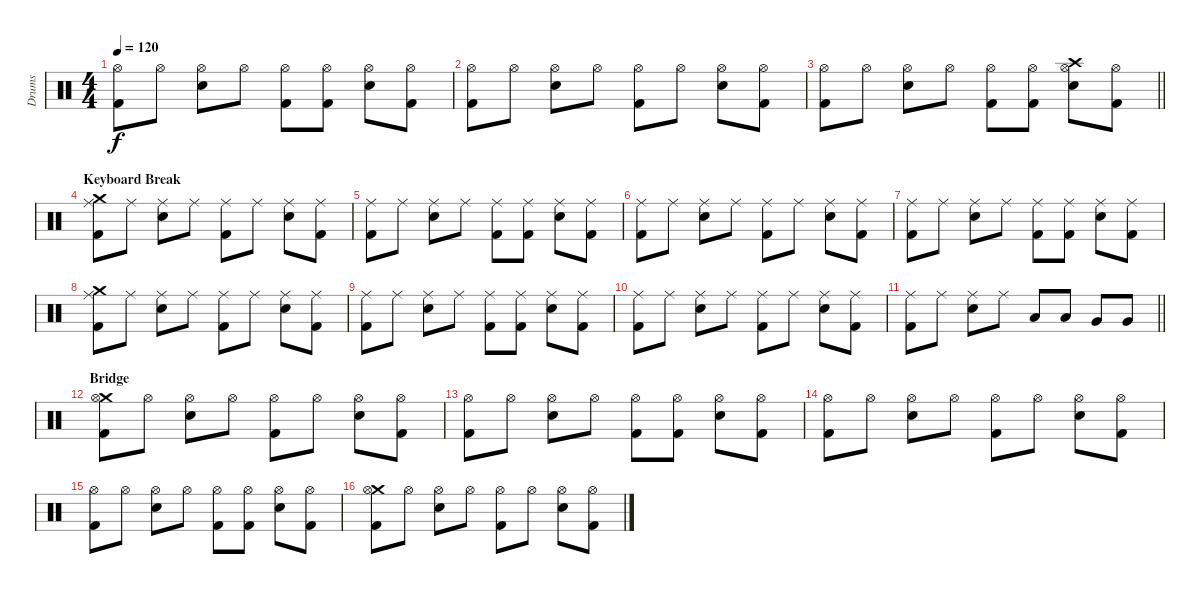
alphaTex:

\track ("Drums" "Drums") {instrument percussion}
\staff {score}
\articulation defaults
\ts (4 4)
\tempo 120
\clef neutral
\ks c
("Hi-Hat (open)" "Kick (hit) 2").8{dy f} "Hi-Hat (open)".8 ("Hi-Hat (open)" "Snare (hit) 2").8 "Hi-Hat (open)".8 ("Hi-Hat (open)" "Kick (hit) 2").8 ("Hi-Hat (open)" "Kick (hit) 2").8 ("Hi-Hat (open)" "Snare (hit) 2").8 ("Hi-Hat (open)" "Kick (hit) 2").8 |
("Hi-Hat (open)" "Kick (hit) 2").8 "Hi-Hat (open)".8 ("Hi-Hat (open)" "Snare (hit) 2").8 "Hi-Hat (open)".8 ("Hi-Hat (open)" "Kick (hit) 2").8 "Hi-Hat (open)".8 ("Hi-Hat (open)" "Snare (hit) 2").8 ("Hi-Hat (open)" "Kick (hit) 2").8 |
\barLineRight lightlight
("Hi-Hat (open)" "Kick (hit) 2").8 "Hi-Hat (open)".8 ("Hi-Hat (open)" "Snare (hit) 2").8 "Hi-Hat (open)".8 ("Hi-Hat (open)" "Kick (hit) 2").8 ("Hi-Hat (open)" "Kick (hit) 2").8 ("Crash high (hit)" "Hi-Hat (open)" "Snare (hit) 2").8 ("Hi-Hat (open)" "Kick (hit) 2").8 |
\section ("" "Keyboard Break")
("Crash medium (hit)" "Ride (middle)" "Kick (hit) 2").8 "Ride (middle)".8 ("Ride (middle)" "Snare (hit) 2").8 "Ride (middle)".8 ("Ride (middle)" "Kick (hit) 2").8 "Ride (middle)".8 ("Ride (middle)" "Snare (hit) 2").8 ("Ride (middle)" "Kick (hit) 2").8 |
("Ride (middle)" "Kick (hit) 2").8 "Ride (middle)".8 ("Ride (middle)" "Snare (hit) 2").8 "Ride (middle)".8 ("Ride (middle)" "Kick (hit) 2").8 ("Ride (middle)" "Kick (hit) 2").8 ("Ride (middle)" "Snare (hit) 2").8 ("Ride (middle)" "Kick (hit) 2").8 |
("Ride (middle)" "Kick (hit) 2").8 "Ride (middle)".8 ("Ride (middle)" "Snare (hit) 2").8 "Ride (middle)".8 ("Ride (middle)" "Kick (hit) 2").8 "Ride (middle)".8 ("Ride (middle)" "Snare (hit) 2").8 ("Ride (middle)" "Kick (hit) 2").8 |
("Ride (middle)" "Kick (hit) 2").8 "Ride (middle)".8 ("Ride (middle)" "Snare (hit) 2").8 "Ride (middle)".8 ("Ride (middle)" "Kick (hit) 2").8 ("Ride (middle)" "Kick (hit) 2").8 ("Ride (middle)" "Snare (hit) 2").8 ("Ride (middle)" "Kick (hit) 2").8 |
("Crash medium (hit)" "Ride (middle)" "Kick (hit) 2").8 "Ride (middle)".8 ("Ride (middle)" "Snare (hit) 2").8 "Ride (middle)".8 ("Ride (middle)" "Kick (hit) 2").8 "Ride (middle)".8 ("Ride (middle)" "Snare (hit) 2").8 ("Ride (middle)" "Kick (hit) 2").8 |
("Ride (middle)" "Kick (hit) 2").8 "Ride (middle)".8 ("Ride (middle)" "Snare (hit) 2").8 "Ride (middle)".8 ("Ride (middle)" "Kick (hit) 2").8 ("Ride (middle)" "Kick (hit) 2").8 ("Ride (middle)" "Snare (hit) 2").8 ("Ride (middle)" "Kick (hit) 2").8 |
("Ride (middle)" "Kick (hit) 2").8 "Ride (middle)".8 ("Ride (middle)" "Snare (hit) 2").8 "Ride (middle)".8 ("Ride (middle)" "Kick (hit) 2").8 "Ride (middle)".8 ("Ride (middle)" "Snare (hit) 2").8 ("Ride (middle)" "Kick (hit) 2").8 |
\barLineRight lightlight
("Ride (middle)" "Kick (hit) 2").8 "Ride (middle)".8 ("Ride (middle)" "Snare (hit) 2").8 "Ride (middle)".8 "Low Tom (hit)".8 "Low Tom (hit)".8 "Very Low Tom (hit)".8 "Very Low Tom (hit)".8 |
\section ("" "Bridge")
("Crash medium (hit)" "Hi-Hat (open)" "Kick (hit) 2").8 "Hi-Hat (open)".8 ("Hi-Hat (open)" "Snare (hit) 2").8 "Hi-Hat (open)".8 ("Hi-Hat (open)" "Kick (hit) 2").8 "Hi-Hat (open)".8 ("Hi-Hat (open)" "Snare (hit) 2").8 ("Hi-Hat (open)" "Kick (hit) 2").8 |
("Hi-Hat (open)" "Kick (hit) 2").8 "Hi-Hat (open)".8 ("Hi-Hat (open)" "Snare (hit) 2").8 "Hi-Hat (open)".8 ("Hi-Hat (open)" "Kick (hit) 2").8 ("Hi-Hat (open)" "Kick (hit) 2").8 ("Hi-Hat (open)" "Snare (hit) 2").8 ("Hi-Hat (open)" "Kick (hit) 2").8 |
("Hi-Hat (open)" "Kick (hit) 2").8 "Hi-Hat (open)".8 ("Hi-Hat (open)" "Snare (hit) 2").8 "Hi-Hat (open)".8 ("Hi-Hat (open)" "Kick (hit) 2").8 "Hi-Hat (open)".8 ("Hi-Hat (open)" "Snare (hit) 2").8 ("Hi-Hat (open)" "Kick (hit) 2").8 |
("Hi-Hat (open)" "Kick (hit) 2").8 "Hi-Hat (open)".8 ("Hi-Hat (open)" "Snare (hit) 2").8 "Hi-Hat (open)".8 ("Hi-Hat (open)" "Kick (hit) 2").8 ("Hi-Hat (open)" "Kick (hit) 2").8 ("Hi-Hat (open)" "Snare (hit) 2").8 ("Hi-Hat (open)" "Kick (hit) 2").8 |
("Crash medium (hit)" "Hi-Hat (open)" "Kick (hit) 2").8 "Hi-Hat (open)".8 ("Hi-Hat (open)" "Snare (hit) 2").8 "Hi-Hat (open)".8 ("Hi-Hat (open)" "Kick (hit) 2").8 "Hi-Hat (open)".8 ("Hi-Hat (open)" "Snare (hit) 2").8 ("Hi-Hat (open)" "Kick (hit) 2").8
